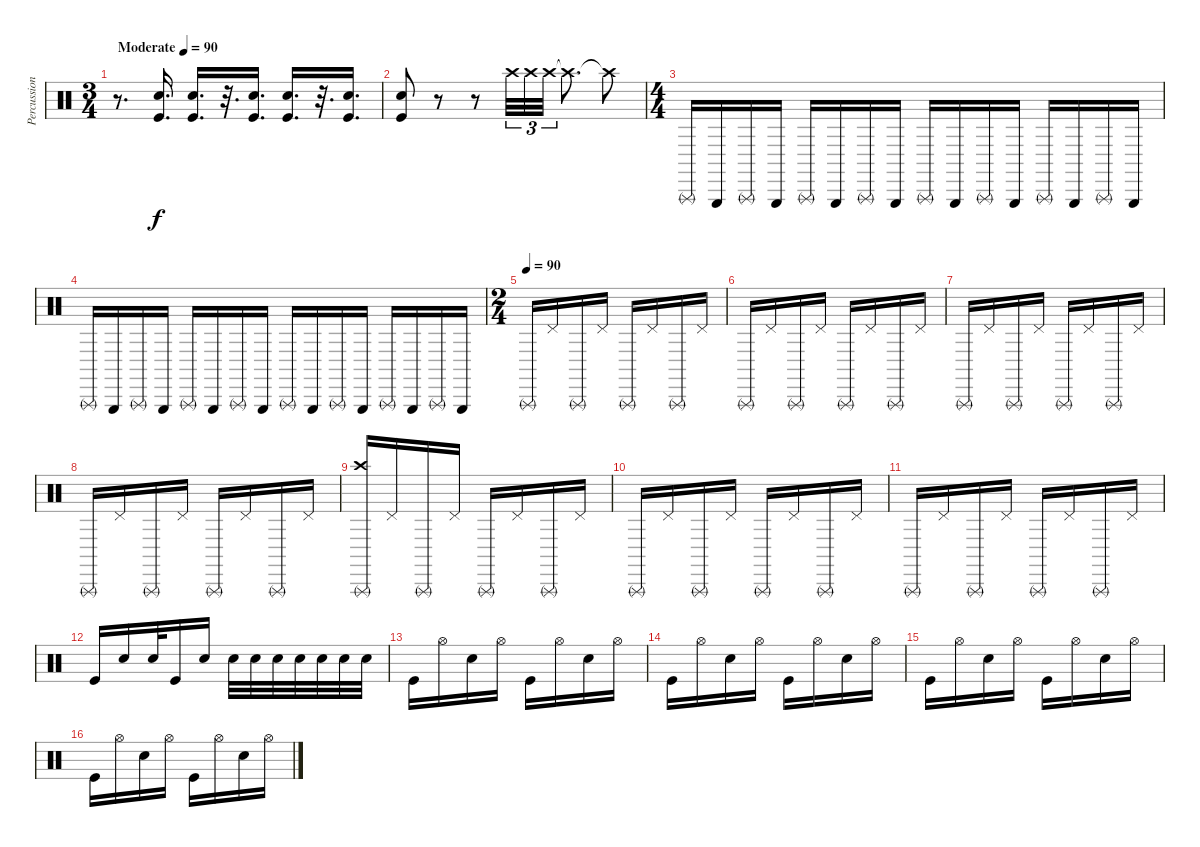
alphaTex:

\track ("Percussion" "Percussion") {instrument percussion}
\staff {score}
\articulation defaults
\ts (3 4)
\tempo (90 "Moderate")
\clef neutral
\ks c
r.8{d dy f} ("Kick (hit)" "Snare (hit) 2").16{d} ("Kick (hit)" "Snare (hit) 2").16{d} r.32{d} ("Kick (hit)" "Snare (hit) 2").16{d} ("Kick (hit)" "Snare (hit) 2").16{d} r.32{d} ("Kick (hit)" "Snare (hit) 2").16{d} |
("Kick (hit)" "Snare (hit) 2").8 r.8 r.8 "Crash high (hit)".32{tu (3 2)} "Crash high (hit)".32{tu (3 2)} "Crash high (hit)".32{tu (3 2)} "Crash high (hit)"{t}.8{d} "Crash high (hit)"{t}.8 |
\ts (4 4)
"Triangle (rnute)".16 "Triangle (hit)".16 "Triangle (rnute)".16 "Triangle (hit)".16 "Triangle (rnute)".16 "Triangle (hit)".16 "Triangle (rnute)".16 "Triangle (hit)".16 "Triangle (rnute)".16 "Triangle (hit)".16 "Triangle (rnute)".16 "Triangle (hit)".16 "Triangle (rnute)".16 "Triangle (hit)".16 "Triangle (rnute)".16 "Triangle (hit)".16 |
"Triangle (rnute)".16 "Triangle (hit)".16 "Triangle (rnute)".16 "Triangle (hit)".16 "Triangle (rnute)".16 "Triangle (hit)".16 "Triangle (rnute)".16 "Triangle (hit)".16 "Triangle (rnute)".16 "Triangle (hit)".16 "Triangle (rnute)".16 "Triangle (hit)".16 "Triangle (rnute)".16 "Triangle (hit)".16 "Triangle (rnute)".16 "Triangle (hit)".16 |
\ts (2 4)
\tempo (90)
"Triangle (rnute)".16 "Pedal Hi-Hat (hit)".16 "Triangle (rnute)".16 "Pedal Hi-Hat (hit)".16 "Triangle (rnute)".16 "Pedal Hi-Hat (hit)".16 "Triangle (rnute)".16 "Pedal Hi-Hat (hit)".16 |
"Triangle (rnute)".16 "Pedal Hi-Hat (hit)".16 "Triangle (rnute)".16 "Pedal Hi-Hat (hit)".16 "Triangle (rnute)".16 "Pedal Hi-Hat (hit)".16 "Triangle (rnute)".16 "Pedal Hi-Hat (hit)".16 |
"Triangle (rnute)".16 "Pedal Hi-Hat (hit)".16 "Triangle (rnute)".16 "Pedal Hi-Hat (hit)".16 "Triangle (rnute)".16 "Pedal Hi-Hat (hit)".16 "Triangle (rnute)".16 "Pedal Hi-Hat (hit)".16 |
"Triangle (rnute)".16 "Pedal Hi-Hat (hit)".16 "Triangle (rnute)".16 "Pedal Hi-Hat (hit)".16 "Triangle (rnute)".16 "Pedal Hi-Hat (hit)".16 "Triangle (rnute)".16 "Pedal Hi-Hat (hit)".16 |
("Triangle (rnute)" "Crash high (hit)").16 "Pedal Hi-Hat (hit)".16 "Triangle (rnute)".16 "Pedal Hi-Hat (hit)".16 "Triangle (rnute)".16 "Pedal Hi-Hat (hit)".16 "Triangle (rnute)".16 "Pedal Hi-Hat (hit)".16 |
"Triangle (rnute)".16 "Pedal Hi-Hat (hit)".16 "Triangle (rnute)".16 "Pedal Hi-Hat (hit)".16 "Triangle (rnute)".16 "Pedal Hi-Hat (hit)".16 "Triangle (rnute)".16 "Pedal Hi-Hat (hit)".16 |
"Triangle (rnute)".16 "Pedal Hi-Hat (hit)".16 "Triangle (rnute)".16 "Pedal Hi-Hat (hit)".16 "Triangle (rnute)".16 "Pedal Hi-Hat (hit)".16 "Triangle (rnute)".16 "Pedal Hi-Hat (hit)".16 |
"Kick (hit)".16 "Snare (hit) 2".16 "Snare (hit) 2".32 "Kick (hit)".16 "Snare (hit) 2".16 "Snare (hit) 2".32 "Snare (hit) 2".32 "Snare (hit) 2".32 "Snare (hit) 2".32 "Snare (hit) 2".32 "Snare (hit) 2".32 "Snare (hit) 2".32 |
"Kick (hit)".16 "Hi-Hat (open)".16 "Snare (hit) 2".16 "Hi-Hat (open)".16 "Kick (hit)".16 "Hi-Hat (open)".16 "Snare (hit) 2".16 "Hi-Hat (open)".16 |
"Kick (hit)".16 "Hi-Hat (open)".16 "Snare (hit) 2".16 "Hi-Hat (open)".16 "Kick (hit)".16 "Hi-Hat (open)".16 "Snare (hit) 2".16 "Hi-Hat (open)".16 |
"Kick (hit)".16 "Hi-Hat (open)".16 "Snare (hit) 2".16 "Hi-Hat (open)".16 "Kick (hit)".16 "Hi-Hat (open)".16 "Snare (hit) 2".16 "Hi-Hat (open)".16 |
"Kick (hit)".16 "Hi-Hat (open)".16 "Snare (hit) 2".16 "Hi-Hat (open)".16 "Kick (hit)".16 "Hi-Hat (open)".16 "Snare (hit) 2".16 "Hi-Hat (open)".16
